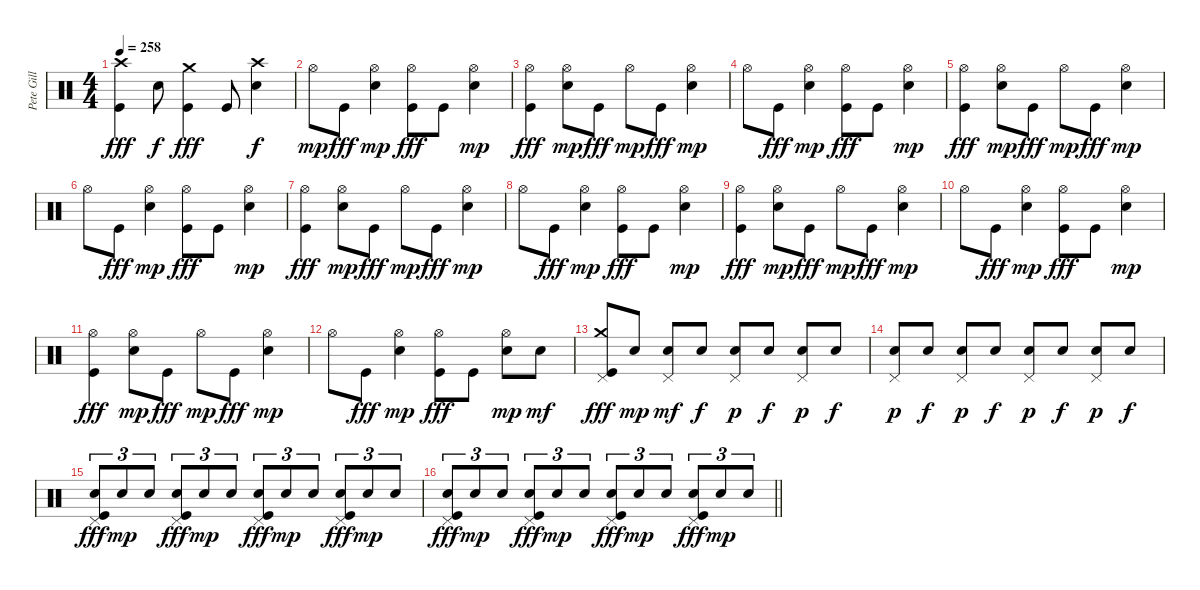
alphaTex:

\track ("Pete Gill" "Pete Gill") {instrument percussion}
\staff {score}
\articulation defaults
\ts (4 4)
\tempo 258
\clef neutral
\ks c
("Crash high (hit)" "Kick (hit)").4{dy fff} "Electric Snare (hit)".8{dy f} ("Crash medium (hit)" "Kick (hit)").4{dy fff} "Kick (hit)".8 ("Crash high (hit)" "Electric Snare (hit)").4{dy f} |
"Hi-Hat (open)".8{dy mp} "Kick (hit)".8{dy fff} ("Hi-Hat (open)" "Electric Snare (hit)").4{dy mp} ("Hi-Hat (open)" "Kick (hit)").8{dy fff} "Kick (hit)".8 ("Hi-Hat (open)" "Electric Snare (hit)").4{dy mp} |
("Hi-Hat (open)" "Kick (hit)").4{dy fff} ("Hi-Hat (open)" "Electric Snare (hit)").8{dy mp} "Kick (hit)".8{dy fff} "Hi-Hat (open)".8{dy mp} "Kick (hit)".8{dy fff} ("Hi-Hat (open)" "Electric Snare (hit)").4{dy mp} |
"Hi-Hat (open)".8 "Kick (hit)".8{dy fff} ("Hi-Hat (open)" "Electric Snare (hit)").4{dy mp} ("Hi-Hat (open)" "Kick (hit)").8{dy fff} "Kick (hit)".8 ("Hi-Hat (open)" "Electric Snare (hit)").4{dy mp} |
("Hi-Hat (open)" "Kick (hit)").4{dy fff} ("Hi-Hat (open)" "Electric Snare (hit)").8{dy mp} "Kick (hit)".8{dy fff} "Hi-Hat (open)".8{dy mp} "Kick (hit)".8{dy fff} ("Hi-Hat (open)" "Electric Snare (hit)").4{dy mp} |
"Hi-Hat (open)".8 "Kick (hit)".8{dy fff} ("Hi-Hat (open)" "Electric Snare (hit)").4{dy mp} ("Hi-Hat (open)" "Kick (hit)").8{dy fff} "Kick (hit)".8 ("Hi-Hat (open)" "Electric Snare (hit)").4{dy mp} |
("Hi-Hat (open)" "Kick (hit)").4{dy fff} ("Hi-Hat (open)" "Electric Snare (hit)").8{dy mp} "Kick (hit)".8{dy fff} "Hi-Hat (open)".8{dy mp} "Kick (hit)".8{dy fff} ("Hi-Hat (open)" "Electric Snare (hit)").4{dy mp} |
"Hi-Hat (open)".8 "Kick (hit)".8{dy fff} ("Hi-Hat (open)" "Electric Snare (hit)").4{dy mp} ("Hi-Hat (open)" "Kick (hit)").8{dy fff} "Kick (hit)".8 ("Hi-Hat (open)" "Electric Snare (hit)").4{dy mp} |
("Hi-Hat (open)" "Kick (hit)").4{dy fff} ("Hi-Hat (open)" "Electric Snare (hit)").8{dy mp} "Kick (hit)".8{dy fff} "Hi-Hat (open)".8{dy mp} "Kick (hit)".8{dy fff} ("Hi-Hat (open)" "Electric Snare (hit)").4{dy mp} |
"Hi-Hat (open)".8 "Kick (hit)".8{dy fff} ("Hi-Hat (open)" "Electric Snare (hit)").4{dy mp} ("Hi-Hat (open)" "Kick (hit)").8{dy fff} "Kick (hit)".8 ("Hi-Hat (open)" "Electric Snare (hit)").4{dy mp} |
("Hi-Hat (open)" "Kick (hit)").4{dy fff} ("Hi-Hat (open)" "Electric Snare (hit)").8{dy mp} "Kick (hit)".8{dy fff} "Hi-Hat (open)".8{dy mp} "Kick (hit)".8{dy fff} ("Hi-Hat (open)" "Electric Snare (hit)").4{dy mp} |
"Hi-Hat (open)".8 "Kick (hit)".8{dy fff} ("Hi-Hat (open)" "Electric Snare (hit)").4{dy mp} ("Hi-Hat (open)" "Kick (hit)").8{dy fff} "Kick (hit)".8 ("Hi-Hat (open)" "Electric Snare (hit)").8{dy mp} "Electric Snare (hit)".8{dy mf} |
("Pedal Hi-Hat (hit)" "Crash medium (hit)" "Kick (hit)").8{dy fff} "Electric Snare (hit)".8{dy mp} ("Pedal Hi-Hat (hit)" "Electric Snare (hit)").8{dy mf} "Electric Snare (hit)".8{dy f} ("Pedal Hi-Hat (hit)" "Electric Snare (hit)").8{dy p} "Electric Snare (hit)".8{dy f} ("Pedal Hi-Hat (hit)" "Electric Snare (hit)").8{dy p} "Electric Snare (hit)".8{dy f} |
("Pedal Hi-Hat (hit)" "Electric Snare (hit)").8{dy p} "Electric Snare (hit)".8{dy f} ("Pedal Hi-Hat (hit)" "Electric Snare (hit)").8{dy p} "Electric Snare (hit)".8{dy f} ("Pedal Hi-Hat (hit)" "Electric Snare (hit)").8{dy p} "Electric Snare (hit)".8{dy f} ("Pedal Hi-Hat (hit)" "Electric Snare (hit)").8{dy p} "Electric Snare (hit)".8{dy f} |
("Pedal Hi-Hat (hit)" "Electric Snare (hit)" "Kick (hit)").8{tu (3 2) dy fff} "Electric Snare (hit)".8{tu (3 2) dy mp} "Electric Snare (hit)".8{tu (3 2)} ("Pedal Hi-Hat (hit)" "Electric Snare (hit)" "Kick (hit)").8{tu (3 2) dy fff} "Electric Snare (hit)".8{tu (3 2) dy mp} "Electric Snare (hit)".8{tu (3 2)} ("Pedal Hi-Hat (hit)" "Electric Snare (hit)" "Kick (hit)").8{tu (3 2) dy fff} "Electric Snare (hit)".8{tu (3 2) dy mp} "Electric Snare (hit)".8{tu (3 2)} ("Pedal Hi-Hat (hit)" "Electric Snare (hit)" "Kick (hit)").8{tu (3 2) dy fff} "Electric Snare (hit)".8{tu (3 2) dy mp} "Electric Snare (hit)".8{tu (3 2)} |
\barLineRight lightlight
("Pedal Hi-Hat (hit)" "Electric Snare (hit)" "Kick (hit)").8{tu (3 2) dy fff} "Electric Snare (hit)".8{tu (3 2) dy mp} "Electric Snare (hit)".8{tu (3 2)} ("Pedal Hi-Hat (hit)" "Electric Snare (hit)" "Kick (hit)").8{tu (3 2) dy fff} "Electric Snare (hit)".8{tu (3 2) dy mp} "Electric Snare (hit)".8{tu (3 2)} ("Pedal Hi-Hat (hit)" "Electric Snare (hit)" "Kick (hit)").8{tu (3 2) dy fff} "Electric Snare (hit)".8{tu (3 2) dy mp} "Electric Snare (hit)".8{tu (3 2)} ("Pedal Hi-Hat (hit)" "Electric Snare (hit)" "Kick (hit)").8{tu (3 2) dy fff} "Electric Snare (hit)".8{tu (3 2) dy mp} "Electric Snare (hit)".8{tu (3 2)}
